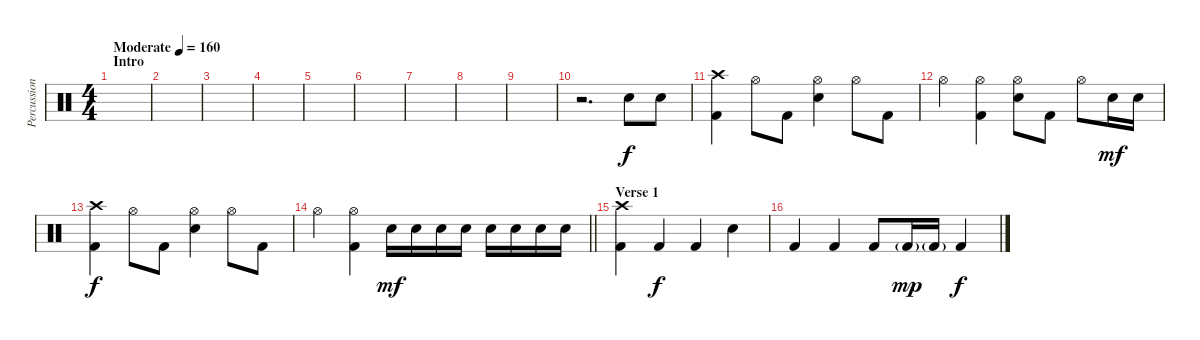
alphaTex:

\track ("Percussion" "Percussion") {instrument percussion}
\staff {score}
\articulation defaults
\ts (4 4)
\section ("" "Intro")
\tempo (160 "Moderate")
\clef neutral
\ks c
|
|
|
|
|
|
|
|
|
r.2{d} "Snare (hit) 2".8 "Snare (hit) 2".8 |
("Crash high (hit)" "Kick (hit) 2").4 "Hi-Hat (open)".8 "Kick (hit) 2".8 ("Hi-Hat (open)" "Snare (hit) 2").4 "Hi-Hat (open)".8 "Kick (hit) 2".8 |
"Hi-Hat (open)".4 ("Hi-Hat (open)" "Kick (hit) 2").4 ("Hi-Hat (open)" "Snare (hit) 2").8 "Kick (hit) 2".8 "Hi-Hat (open)".8 "Snare (hit) 2".16{dy mf} "Snare (hit) 2".16 |
("Crash high (hit)" "Kick (hit) 2").4{dy f} "Hi-Hat (open)".8 "Kick (hit) 2".8 ("Hi-Hat (open)" "Snare (hit) 2").4 "Hi-Hat (open)".8 "Kick (hit) 2".8 |
\barLineRight lightlight "Hi-Hat (open)".4
("Hi-Hat (open)" "Kick (hit) 2").4 "Snare (hit) 2".16{dy mf} "Snare (hit) 2".16 "Snare (hit) 2".16 "Snare (hit) 2".16 "Snare (hit) 2".16 "Snare (hit) 2".16 "Snare (hit) 2".16 "Snare (hit) 2".16 |
\section ("" "Verse 1")
("Crash high (hit)" "Kick (hit) 2").4 "Kick (hit) 2".4{dy f} "Kick (hit) 2".4 "Snare (hit) 2".4 |
"Kick (hit) 2".4 "Kick (hit) 2".4 "Kick (hit) 2".8 "Kick (hit) 2"{g}.16{dy mp} "Kick (hit) 2"{g}.16 "Kick (hit) 2".4{dy f}
